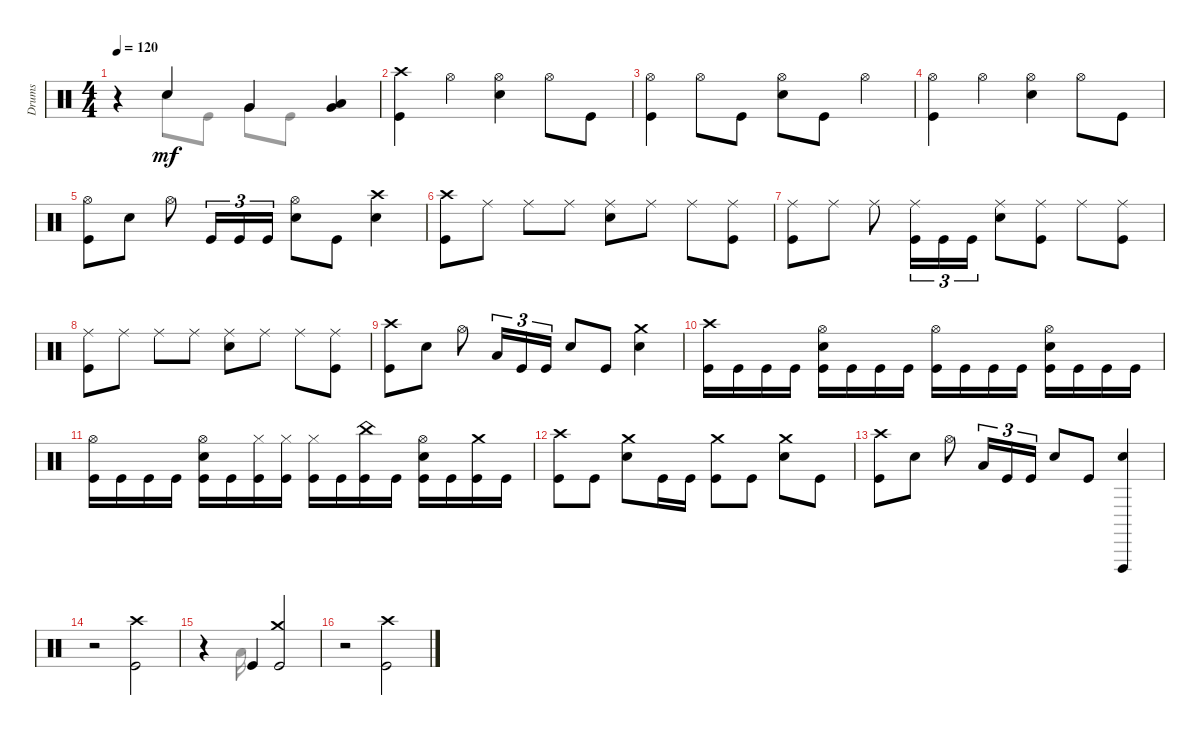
\track ("Drums" "Drums") {instrument percussion}
\staff {score}
\articulation defaults
\voice
\ts (4 4)
\tempo 120
\clef neutral
\ks aminor
r.4{dy mf} "Snare (hit) 2".4 "Very Low Tom (hit)".4 ("Low Floor Tom (hit)" "Very Low Tom (hit)").4 |
("Crash high (hit)" "Kick (hit)").4 "Hi-Hat (open)".4 ("Hi-Hat (open)" "Snare (hit) 2").4 "Hi-Hat (open)".8 "Kick (hit)".8 |
("Kick (hit)" "Hi-Hat (open)").4 "Hi-Hat (open)".8 "Kick (hit)".8 ("Hi-Hat (open)" "Snare (hit) 2").8 "Kick (hit)".8 "Hi-Hat (open)".4 |
("Kick (hit)" "Hi-Hat (open)").4 "Hi-Hat (open)".4 ("Snare (hit) 2" "Hi-Hat (open)").4 "Hi-Hat (open)".8 "Kick (hit)".8 |
("Kick (hit)" "Hi-Hat (open)").8 "Snare (hit) 2".8 "Hi-Hat (open)".8 "Kick (hit)".16{tu (3 2)} "Kick (hit)".16{tu (3 2)} "Kick (hit)".16{tu (3 2)} ("Hi-Hat (open)" "Snare (hit) 2").8 "Kick (hit)".8 ("Snare (hit) 2" "Crash high (hit)").4 |
("Crash high (hit)" "Kick (hit)").8 "Ride (middle)".8 "Ride (middle)".8 "Ride (middle)".8 ("Snare (hit) 2" "Ride (middle)").8 "Ride (middle)".8 "Ride (middle)".8 ("Kick (hit)" "Ride (middle)").8 |
("Ride (middle)" "Kick (hit)").8 "Ride (middle)".8 "Ride (middle)".8 ("Ride (middle)" "Kick (hit)").16{tu (3 2)} "Kick (hit)".16{tu (3 2)} "Kick (hit)".16{tu (3 2)} ("Ride (middle)" "Snare (hit) 2").8 ("Ride (middle)" "Kick (hit)").8 "Ride (middle)".8 ("Ride (middle)" "Kick (hit)").8 |
("Ride (middle)" "Kick (hit)").8 "Ride (middle)".8 "Ride (middle)".8 "Ride (middle)".8 ("Snare (hit) 2" "Ride (middle)").8 "Ride (middle)".8 "Ride (middle)".8 ("Ride (middle)" "Kick (hit)").8 |
("Crash high (hit)" "Kick (hit)").8 "Snare (hit) 2".8 "Hi-Hat (open)".8 "Low Floor Tom (hit)".16{tu (3 2)} "Kick (hit)".16{tu (3 2)} "Kick (hit)".16{tu (3 2)} "Snare (hit) 2".8 "Kick (hit)".8 ("Crash medium (hit)" "Snare (hit) 2").4 |
("Crash high (hit)" "Kick (hit)").16 "Kick (hit)".16 "Kick (hit)".16 "Kick (hit)".16 ("Hi-Hat (open)" "Kick (hit)" "Snare (hit) 2").16 "Kick (hit)".16 "Kick (hit)".16 "Kick (hit)".16 ("Hi-Hat (open)" "Kick (hit)").16 "Kick (hit)".16 "Kick (hit)".16 "Kick (hit)".16 ("Hi-Hat (open)" "Kick (hit)" "Snare (hit) 2").16 "Kick (hit)".16 "Kick (hit)".16 "Kick (hit)".16 |
("Kick (hit)" "Hi-Hat (open)").16 "Kick (hit)".16 "Kick (hit)".16 "Kick (hit)".16 ("Hi-Hat (open)" "Kick (hit)" "Snare (hit) 2").16 "Kick (hit)".16 ("Kick (hit)" "Hi-Hat (closed)").16 ("Hi-Hat (closed)" "Kick (hit)").16 ("Kick (hit)" "Hi-Hat (closed)").16 "Kick (hit)".16 ("China (hit)" "Kick (hit)").16 "Kick (hit)".16 ("Snare (hit) 2" "Hi-Hat (open)" "Kick (hit)").16 "Kick (hit)".16 ("Crash medium (hit)" "Kick (hit)").16 "Kick (hit)".16 |
("Crash high (hit)" "Kick (hit)").8 "Kick (hit)".8 ("Crash medium (hit)" "Snare (hit) 2").8 "Kick (hit)".16 "Kick (hit)".16 ("Crash medium (hit)" "Kick (hit)").8 "Kick (hit)".8 ("Crash medium (hit)" "Snare (hit) 2").8 "Kick (hit)".8 |
("Kick (hit)" "Crash high (hit)").8 "Snare (hit) 2".8 "Hi-Hat (open)".8 "Low Floor Tom (hit)".16{tu (3 2)} "Kick (hit)".16{tu (3 2)} "Kick (hit)".16{tu (3 2)} "Snare (hit) 2".8 "Kick (hit)".8 ("Vibraslap (hit)" "Snare (hit) 2").4 |
r.2 ("Kick (hit)" "Crash high (hit)").2 |
r.4 "Kick (hit)".4 ("Crash medium (hit)" "Kick (hit)").2 |
r.2 ("Kick (hit)" "Crash high (hit)").2
\voice
\clef neutral
\ottava regular
\simile none
\ks aminor
r.4{dy mf} "Snare (hit) 2".8 "Kick (hit)".8 "Very Low Tom (hit)".8 "Kick (hit)".8 |
|
|
|
|
|
|
|
|
|
|
|
|
|
r.4 "Low Floor Tom (hit)".16 |
